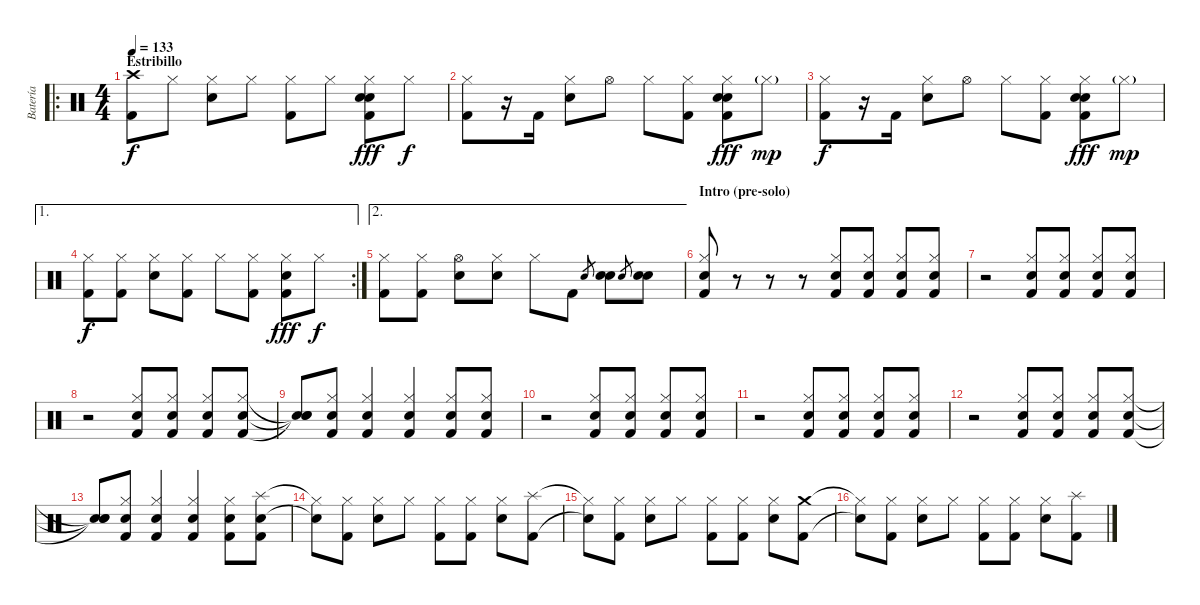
\track ("Batería" "Batería") {instrument percussion}
\staff {score}
\articulation defaults
\ro
\ts (4 4)
\section ("" "Estribillo")
\tempo 133
\clef neutral
\ks c
("Crash high (hit)" "Kick (hit) 2").8{dy f} "Hi-Hat (closed)".8 ("Hi-Hat (closed)" "Snare (hit) 2").8 "Hi-Hat (closed)".8 ("Hi-Hat (closed)" "Kick (hit) 2").8 "Hi-Hat (closed)".8 ("Hi-Hat (closed)" "Snare (hit) 2" "Snare (hit) 2" "Kick (hit) 2").8{dy fff} "Hi-Hat (closed)".8{dy f} |
("Hi-Hat (closed)" "Kick (hit) 2").8 r.16 "Kick (hit) 2".16 ("Hi-Hat (closed)" "Snare (hit) 2").8 "Hi-Hat (open)".8 "Hi-Hat (closed)".8 ("Hi-Hat (closed)" "Kick (hit) 2").8 ("Hi-Hat (closed)" "Snare (hit) 2" "Snare (hit) 2" "Kick (hit) 2").8{dy fff} "Hi-Hat (closed)"{g}.8{dy mp} |
("Hi-Hat (closed)" "Kick (hit) 2").8{dy f} r.16 "Kick (hit) 2".16 ("Hi-Hat (closed)" "Snare (hit) 2").8 "Hi-Hat (open)".8 "Hi-Hat (closed)".8 ("Hi-Hat (closed)" "Kick (hit) 2").8 ("Hi-Hat (closed)" "Snare (hit) 2" "Snare (hit) 2" "Kick (hit) 2").8{dy fff} "Hi-Hat (closed)"{g}.8{dy mp} |
\ae 1
\rc 2
("Hi-Hat (closed)" "Kick (hit) 2").8{dy f} ("Hi-Hat (closed)" "Kick (hit) 2").8 ("Hi-Hat (closed)" "Snare (hit) 2").8 ("Hi-Hat (closed)" "Kick (hit) 2").8 "Hi-Hat (closed)".8 ("Hi-Hat (closed)" "Kick (hit) 2").8 ("Hi-Hat (closed)" "Snare (hit) 2" "Kick (hit) 2").8{dy fff} "Hi-Hat (closed)".8{dy f} |
\ae 2
("Hi-Hat (closed)" "Kick (hit) 2").8 ("Hi-Hat (closed)" "Kick (hit) 2").8 ("Hi-Hat (open)" "Snare (hit) 2").8 ("Hi-Hat (closed)" "Snare (hit) 2").8 "Hi-Hat (closed)".8 "Kick (hit) 2".8 "Snare (hit) 2".8{gr} ("Snare (hit) 2" "Snare (hit) 2").8 "Snare (hit) 2".8{gr} ("Snare (hit) 2" "Snare (hit) 2").8 |
\section ("" "Intro (pre-solo)")
("Hi-Hat (closed)" "Snare (hit) 2" "Kick (hit) 2").8 r.8 r.8 r.8 ("Hi-Hat (closed)" "Snare (hit) 2" "Kick (hit) 2").8 ("Hi-Hat (closed)" "Snare (hit) 2" "Kick (hit) 2").8 ("Hi-Hat (closed)" "Snare (hit) 2" "Kick (hit) 2").8 ("Hi-Hat (closed)" "Snare (hit) 2" "Kick (hit) 2").8 |
r.2 ("Hi-Hat (closed)" "Snare (hit) 2" "Kick (hit) 2").8 ("Hi-Hat (closed)" "Snare (hit) 2" "Kick (hit) 2").8 ("Hi-Hat (closed)" "Snare (hit) 2" "Kick (hit) 2").8 ("Hi-Hat (closed)" "Snare (hit) 2" "Kick (hit) 2").8 |
r.2 ("Hi-Hat (closed)" "Snare (hit) 2" "Kick (hit) 2").8 ("Hi-Hat (closed)" "Snare (hit) 2" "Kick (hit) 2").8 ("Hi-Hat (closed)" "Snare (hit) 2" "Kick (hit) 2").8 ("Hi-Hat (closed)" "Snare (hit) 2" "Kick (hit) 2").8 |
("Snare (hit)"{t} "Snare (hit)"{t} "Snare (hit)"{t}).8 ("Hi-Hat (closed)" "Snare (hit) 2" "Kick (hit) 2").8 ("Hi-Hat (closed)" "Snare (hit) 2" "Kick (hit) 2").4 ("Hi-Hat (closed)" "Snare (hit) 2" "Kick (hit) 2").4 ("Hi-Hat (closed)" "Snare (hit) 2" "Kick (hit) 2").8 ("Hi-Hat (closed)" "Snare (hit) 2" "Kick (hit) 2").8 |
r.2 ("Hi-Hat (closed)" "Snare (hit) 2" "Kick (hit) 2").8 ("Hi-Hat (closed)" "Snare (hit) 2" "Kick (hit) 2").8 ("Hi-Hat (closed)" "Snare (hit) 2" "Kick (hit) 2").8 ("Hi-Hat (closed)" "Snare (hit) 2" "Kick (hit) 2").8 |
r.2 ("Hi-Hat (closed)" "Snare (hit) 2" "Kick (hit) 2").8 ("Hi-Hat (closed)" "Snare (hit) 2" "Kick (hit) 2").8 ("Hi-Hat (closed)" "Snare (hit) 2" "Kick (hit) 2").8 ("Hi-Hat (closed)" "Snare (hit) 2" "Kick (hit) 2").8 |
r.2 ("Hi-Hat (closed)" "Snare (hit) 2" "Kick (hit) 2").8 ("Hi-Hat (closed)" "Snare (hit) 2" "Kick (hit) 2").8 ("Hi-Hat (closed)" "Snare (hit) 2" "Kick (hit) 2").8 ("Hi-Hat (closed)" "Snare (hit) 2" "Kick (hit) 2").8 |
("Snare (hit)"{t} "Snare (hit)"{t} "Snare (hit)"{t}).8 ("Hi-Hat (closed)" "Snare (hit) 2" "Kick (hit) 2").8 ("Hi-Hat (closed)" "Snare (hit) 2" "Kick (hit) 2").4 ("Hi-Hat (closed)" "Snare (hit) 2" "Kick (hit) 2").4 ("Hi-Hat (closed)" "Snare (hit) 2" "Kick (hit) 2").8 ("Splash (hit)" "Snare (hit) 2" "Kick (hit) 2").8 |
("Hi-Hat (closed)"{t} "Snare (hit)"{t}).8 ("Hi-Hat (closed)" "Kick (hit) 2").8 ("Hi-Hat (closed)" "Snare (hit) 2").8 "Hi-Hat (closed)".8 ("Hi-Hat (closed)" "Kick (hit) 2").8 ("Hi-Hat (closed)" "Kick (hit) 2").8 ("Hi-Hat (closed)" "Snare (hit) 2").8 ("Splash (hit)" "Kick (hit) 2").8 |
("Hi-Hat (closed)"{t} "Snare (hit)"{t}).8 ("Hi-Hat (closed)" "Kick (hit) 2").8 ("Hi-Hat (closed)" "Snare (hit) 2").8 "Hi-Hat (closed)".8 ("Hi-Hat (closed)" "Kick (hit) 2").8 ("Hi-Hat (closed)" "Kick (hit) 2").8 ("Hi-Hat (closed)" "Snare (hit) 2").8 ("Crash medium (hit)" "Kick (hit) 2").8 |
("Hi-Hat (closed)"{t} "Snare (hit)"{t}).8 ("Hi-Hat (closed)" "Kick (hit) 2").8 ("Hi-Hat (closed)" "Snare (hit) 2").8 "Hi-Hat (closed)".8 ("Hi-Hat (closed)" "Kick (hit) 2").8 ("Hi-Hat (closed)" "Kick (hit) 2").8 ("Hi-Hat (closed)" "Snare (hit) 2").8 ("Splash (hit)" "Kick (hit) 2").8
